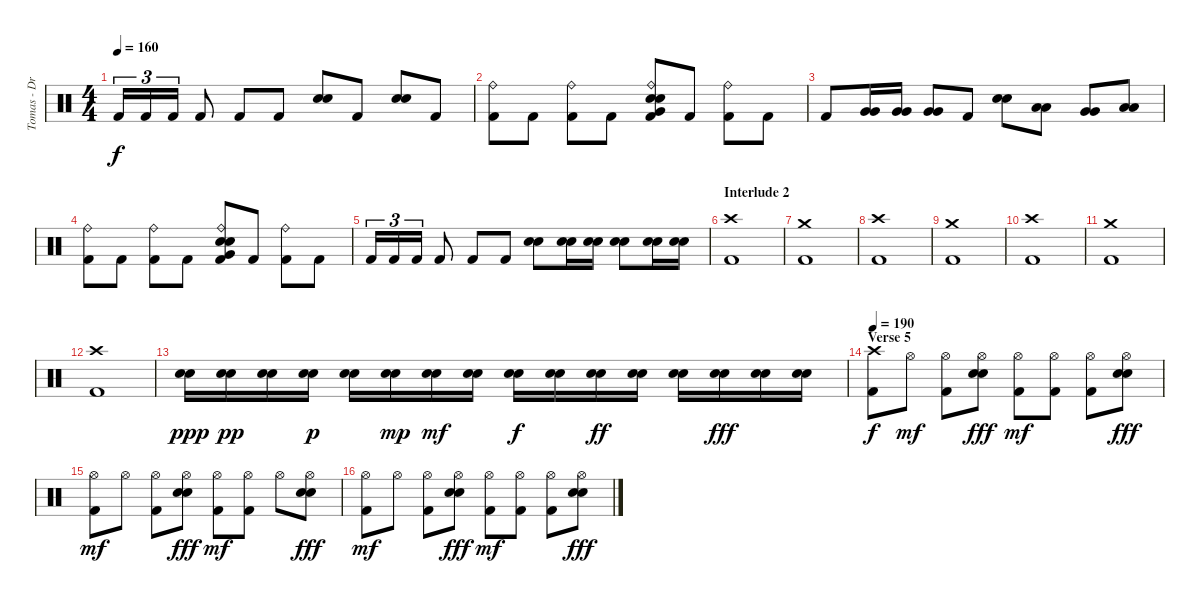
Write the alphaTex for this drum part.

\track ("Tomas - Drums" "Tomas - Dr") {instrument percussion}
\staff {score}
\articulation defaults
\ts (4 4)
\tempo 160
\clef neutral
\ks c "Kick (hit) 2".16{tu (3 2) dy f} "Kick (hit) 2".16{tu (3 2)} "Kick (hit) 2".16{tu (3 2)} "Kick (hit) 2".8 "Kick (hit) 2".8 "Kick (hit) 2".8
("Electric Snare (hit)" "Electric Snare (hit)").8 "Kick (hit) 2".8 ("Electric Snare (hit)" "Electric Snare (hit)").8 "Kick (hit) 2".8 |
("Ride (bell)" "Kick (hit) 2").8 "Kick (hit) 2".8 ("Ride (bell)" "Kick (hit) 2").8 "Kick (hit) 2".8 ("Ride (bell)" "Very Low Tom (hit)" "Electric Snare (hit)" "Electric Snare (hit)" "Kick (hit) 2").8 "Kick (hit) 2".8 ("Ride (bell)" "Kick (hit) 2").8 "Kick (hit) 2".8 |
"Kick (hit) 2".8 ("Very Low Tom (hit)" "Very Low Tom (hit)").16 ("Very Low Tom (hit)" "Very Low Tom (hit)").16 ("Very Low Tom (hit)" "Very Low Tom (hit)").8 "Kick (hit) 2".8 ("Electric Snare (hit)" "Electric Snare (hit)").8 ("Low Tom (hit)" "Low Tom (hit)").8 ("Very Low Tom (hit)" "Very Low Tom (hit)").8 ("Low Floor Tom (hit)" "Low Floor Tom (hit)").8 |
("Ride (bell)" "Kick (hit) 2").8 "Kick (hit) 2".8 ("Ride (bell)" "Kick (hit) 2").8 "Kick (hit) 2".8 ("Ride (bell)" "Very Low Tom (hit)" "Electric Snare (hit)" "Electric Snare (hit)" "Kick (hit) 2").8 "Kick (hit) 2".8 ("Ride (bell)" "Kick (hit) 2").8 "Kick (hit) 2".8 |
"Kick (hit) 2".16{tu (3 2)} "Kick (hit) 2".16{tu (3 2)} "Kick (hit) 2".16{tu (3 2)} "Kick (hit) 2".8 "Kick (hit) 2".8 "Kick (hit) 2".8 ("Electric Snare (hit)" "Electric Snare (hit)").8 ("Electric Snare (hit)" "Electric Snare (hit)").16 ("Electric Snare (hit)" "Electric Snare (hit)").16 ("Electric Snare (hit)" "Electric Snare (hit)").8 ("Electric Snare (hit)" "Electric Snare (hit)").16 ("Electric Snare (hit)" "Electric Snare (hit)").16 |
\section ("" "Interlude 2")
("Crash high (hit)" "Kick (hit) 2").1 |
("Crash medium (hit)" "Kick (hit) 2").1 |
("Crash high (hit)" "Kick (hit) 2").1 |
("Crash medium (hit)" "Kick (hit) 2").1 |
("Crash high (hit)" "Kick (hit) 2").1 |
("Crash medium (hit)" "Kick (hit) 2").1 |
("Crash high (hit)" "Kick (hit) 2").1 |
("Electric Snare (hit)" "Electric Snare (hit)").16{dy ppp} ("Electric Snare (hit)" "Electric Snare (hit)").16{dy pp} ("Electric Snare (hit)" "Electric Snare (hit)").16 ("Electric Snare (hit)" "Electric Snare (hit)").16{dy p} ("Electric Snare (hit)" "Electric Snare (hit)").16 ("Electric Snare (hit)" "Electric Snare (hit)").16{dy mp} ("Electric Snare (hit)" "Electric Snare (hit)").16{dy mf} ("Electric Snare (hit)" "Electric Snare (hit)").16 ("Electric Snare (hit)" "Electric Snare (hit)").16{dy f} ("Electric Snare (hit)" "Electric Snare (hit)").16 ("Electric Snare (hit)" "Electric Snare (hit)").16{dy ff} ("Electric Snare (hit)" "Electric Snare (hit)").16 ("Electric Snare (hit)" "Electric Snare (hit)").16 ("Electric Snare (hit)" "Electric Snare (hit)").16{dy fff} ("Electric Snare (hit)" "Electric Snare (hit)").16 ("Electric Snare (hit)" "Electric Snare (hit)").16 |
\section ("" "Verse 5")
\tempo 190
("Crash high (hit)" "Kick (hit) 2").8{dy f} "Hi-Hat (open)".8{dy mf} ("Hi-Hat (open)" "Kick (hit) 2").8 ("Hi-Hat (open)" "Electric Snare (hit)" "Electric Snare (hit)").8{dy fff} ("Hi-Hat (open)" "Kick (hit) 2").8{dy mf} ("Hi-Hat (open)" "Kick (hit) 2").8 ("Hi-Hat (open)" "Kick (hit) 2").8 ("Hi-Hat (open)" "Electric Snare (hit)" "Electric Snare (hit)").8{dy fff} |
("Hi-Hat (open)" "Kick (hit) 2").8{dy mf} "Hi-Hat (open)".8 ("Hi-Hat (open)" "Kick (hit) 2").8 ("Hi-Hat (open)" "Electric Snare (hit)" "Electric Snare (hit)").8{dy fff} ("Hi-Hat (open)" "Kick (hit) 2").8{dy mf} ("Hi-Hat (open)" "Kick (hit) 2").8 "Hi-Hat (open)".8 ("Hi-Hat (open)" "Electric Snare (hit)" "Electric Snare (hit)").8{dy fff} |
("Hi-Hat (open)" "Kick (hit) 2").8{dy mf} "Hi-Hat (open)".8 ("Hi-Hat (open)" "Kick (hit) 2").8 ("Hi-Hat (open)" "Electric Snare (hit)" "Electric Snare (hit)").8{dy fff} ("Hi-Hat (open)" "Kick (hit) 2").8{dy mf} ("Hi-Hat (open)" "Kick (hit) 2").8 ("Hi-Hat (open)" "Kick (hit) 2").8 ("Hi-Hat (open)" "Electric Snare (hit)" "Electric Snare (hit)").8{dy fff}
